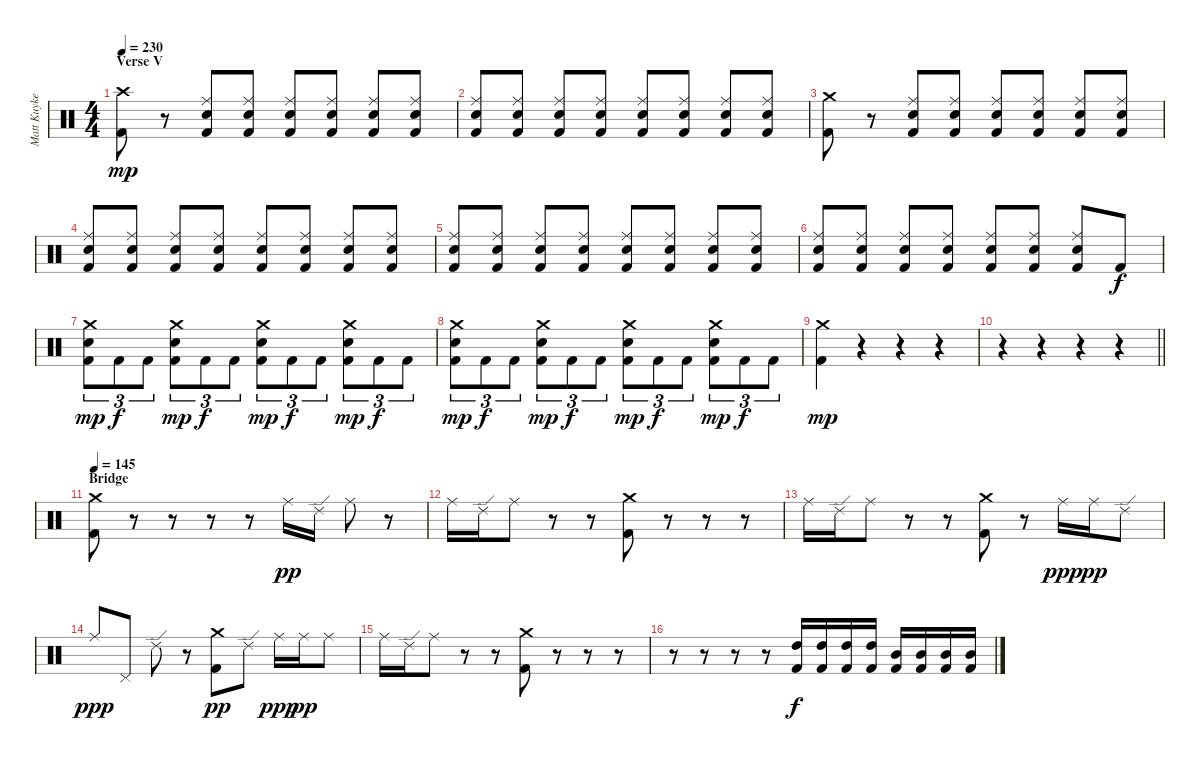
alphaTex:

\track ("Matt Kuykendall" "Matt Kuyke") {instrument percussion}
\staff {score}
\articulation defaults
\ts (4 4)
\section ("" "Verse V")
\tempo 230
\clef neutral
\ks c
("Crash high (hit)" "Kick (hit) 2").8{dy mp} r.8 ("Ride (middle)" "Electric Snare (hit)" "Kick (hit) 2").8 ("Ride (middle)" "Electric Snare (hit)" "Kick (hit) 2").8 ("Ride (middle)" "Electric Snare (hit)" "Kick (hit) 2").8 ("Ride (middle)" "Electric Snare (hit)" "Kick (hit) 2").8 ("Ride (middle)" "Electric Snare (hit)" "Kick (hit) 2").8 ("Ride (middle)" "Electric Snare (hit)" "Kick (hit) 2").8 |
("Ride (middle)" "Electric Snare (hit)" "Kick (hit) 2").8 ("Ride (middle)" "Electric Snare (hit)" "Kick (hit) 2").8 ("Ride (middle)" "Electric Snare (hit)" "Kick (hit) 2").8 ("Ride (middle)" "Electric Snare (hit)" "Kick (hit) 2").8 ("Ride (middle)" "Electric Snare (hit)" "Kick (hit) 2").8 ("Ride (middle)" "Electric Snare (hit)" "Kick (hit) 2").8 ("Ride (middle)" "Electric Snare (hit)" "Kick (hit) 2").8 ("Ride (middle)" "Electric Snare (hit)" "Kick (hit) 2").8 |
("Crash medium (hit)" "Kick (hit) 2").8 r.8 ("Ride (middle)" "Electric Snare (hit)" "Kick (hit) 2").8 ("Ride (middle)" "Electric Snare (hit)" "Kick (hit) 2").8 ("Ride (middle)" "Electric Snare (hit)" "Kick (hit) 2").8 ("Ride (middle)" "Electric Snare (hit)" "Kick (hit) 2").8 ("Ride (middle)" "Electric Snare (hit)" "Kick (hit) 2").8 ("Ride (middle)" "Electric Snare (hit)" "Kick (hit) 2").8 |
("Ride (middle)" "Electric Snare (hit)" "Kick (hit) 2").8 ("Ride (middle)" "Electric Snare (hit)" "Kick (hit) 2").8 ("Ride (middle)" "Electric Snare (hit)" "Kick (hit) 2").8 ("Ride (middle)" "Electric Snare (hit)" "Kick (hit) 2").8 ("Ride (middle)" "Electric Snare (hit)" "Kick (hit) 2").8 ("Ride (middle)" "Electric Snare (hit)" "Kick (hit) 2").8 ("Ride (middle)" "Electric Snare (hit)" "Kick (hit) 2").8 ("Ride (middle)" "Electric Snare (hit)" "Kick (hit) 2").8 |
("Ride (middle)" "Electric Snare (hit)" "Kick (hit) 2").8 ("Ride (middle)" "Electric Snare (hit)" "Kick (hit) 2").8 ("Ride (middle)" "Electric Snare (hit)" "Kick (hit) 2").8 ("Ride (middle)" "Electric Snare (hit)" "Kick (hit) 2").8 ("Ride (middle)" "Electric Snare (hit)" "Kick (hit) 2").8 ("Ride (middle)" "Electric Snare (hit)" "Kick (hit) 2").8 ("Ride (middle)" "Electric Snare (hit)" "Kick (hit) 2").8 ("Ride (middle)" "Electric Snare (hit)" "Kick (hit) 2").8 |
("Ride (middle)" "Electric Snare (hit)" "Kick (hit) 2").8 ("Ride (middle)" "Electric Snare (hit)" "Kick (hit) 2").8 ("Ride (middle)" "Electric Snare (hit)" "Kick (hit) 2").8 ("Ride (middle)" "Electric Snare (hit)" "Kick (hit) 2").8 ("Ride (middle)" "Electric Snare (hit)" "Kick (hit) 2").8 ("Ride (middle)" "Electric Snare (hit)" "Kick (hit) 2").8 ("Ride (middle)" "Electric Snare (hit)" "Kick (hit) 2").8 "Kick (hit) 2".8{dy f} |
("Crash medium (hit)" "Electric Snare (hit)" "Kick (hit) 2").8{tu (3 2) dy mp} "Kick (hit) 2".8{tu (3 2) dy f} "Kick (hit) 2".8{tu (3 2)} ("Crash medium (hit)" "Electric Snare (hit)" "Kick (hit) 2").8{tu (3 2) dy mp} "Kick (hit) 2".8{tu (3 2) dy f} "Kick (hit) 2".8{tu (3 2)} ("Crash medium (hit)" "Electric Snare (hit)" "Kick (hit) 2").8{tu (3 2) dy mp} "Kick (hit) 2".8{tu (3 2) dy f} "Kick (hit) 2".8{tu (3 2)} ("Crash medium (hit)" "Electric Snare (hit)" "Kick (hit) 2").8{tu (3 2) dy mp} "Kick (hit) 2".8{tu (3 2) dy f} "Kick (hit) 2".8{tu (3 2)} |
("Crash medium (hit)" "Electric Snare (hit)" "Kick (hit) 2").8{tu (3 2) dy mp} "Kick (hit) 2".8{tu (3 2) dy f} "Kick (hit) 2".8{tu (3 2)} ("Crash medium (hit)" "Electric Snare (hit)" "Kick (hit) 2").8{tu (3 2) dy mp} "Kick (hit) 2".8{tu (3 2) dy f} "Kick (hit) 2".8{tu (3 2)} ("Crash medium (hit)" "Electric Snare (hit)" "Kick (hit) 2").8{tu (3 2) dy mp} "Kick (hit) 2".8{tu (3 2) dy f} "Kick (hit) 2".8{tu (3 2)} ("Crash medium (hit)" "Electric Snare (hit)" "Kick (hit) 2").8{tu (3 2) dy mp} "Kick (hit) 2".8{tu (3 2) dy f} "Kick (hit) 2".8{tu (3 2)} |
("Crash medium (hit)" "Kick (hit) 2").4{dy mp} r.4 r.4 r.4 |
\barLineRight lightlight
r.4 r.4 r.4 r.4 |
\section ("" "Bridge")
\tempo 145
("Crash medium (hit)" "Kick (hit) 2").8 r.8 r.8 r.8 r.8 "Ride (middle)".16{dy pp} "Ride (edge) 2".16 "Ride (middle)".8 r.8 |
"Ride (middle)".16 "Ride (edge) 2".16 "Ride (middle)".8 r.8 r.8 ("Crash medium (hit)" "Kick (hit) 2").8 r.8 r.8 r.8 |
"Ride (middle)".16 "Ride (edge) 2".16 "Ride (middle)".8 r.8 r.8 ("Crash medium (hit)" "Kick (hit) 2").8 r.8 "Ride (middle)".16{dy ppp} "Ride (middle)".16{dy pp} "Ride (edge) 2".8 |
"Ride (middle)".8{dy ppp} "Pedal Hi-Hat (hit)".8 "Ride (edge) 2".8 r.8 ("Crash medium (hit)" "Kick (hit) 2").8{dy pp} "Ride (edge) 2".8 "Ride (middle)".16{dy ppp} "Ride (middle)".16{dy pp} "Ride (middle)".8 |
"Ride (middle)".16 "Ride (edge) 2".16 "Ride (middle)".8 r.8 r.8 ("Crash medium (hit)" "Kick (hit) 2").8 r.8 r.8 r.8 |
r.8 r.8 r.8 r.8 ("High Tom (hit)" "Kick (hit) 2").16{dy f} ("High Tom (hit)" "Kick (hit) 2").16 ("High Tom (hit)" "Kick (hit) 2").16 ("High Tom (hit)" "Kick (hit) 2").16 ("Mid Tom (hit)" "Kick (hit) 2").16 ("Mid Tom (hit)" "Kick (hit) 2").16 ("Mid Tom (hit)" "Kick (hit) 2").16 ("Mid Tom (hit)" "Kick (hit) 2").16
